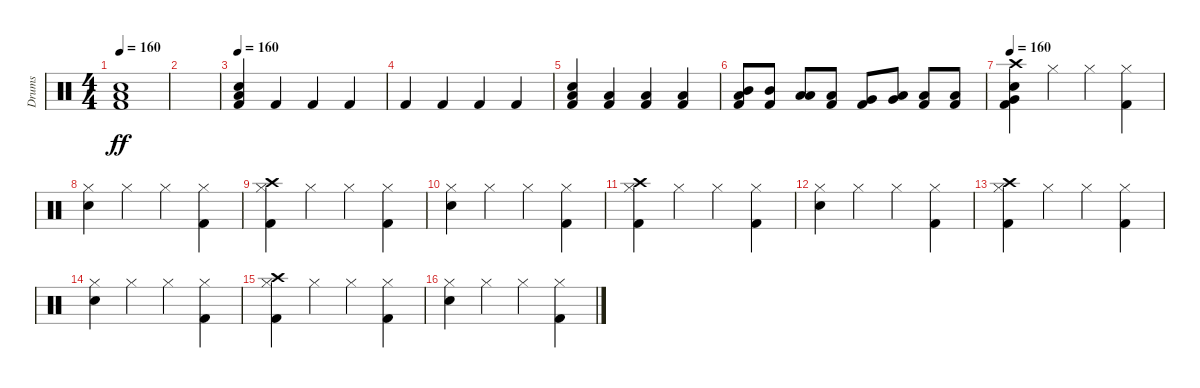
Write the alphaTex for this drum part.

\track ("Drums" "Drums") {instrument percussion}
\staff {score}
\articulation defaults
\ts (4 4)
\tempo 160
\clef neutral
\ks c
("Kick (hit) 2" "Low Floor Tom (hit)" "Snare (hit) 2").1{dy ff} |
|
\tempo 160
("Kick (hit) 2" "Low Floor Tom (hit)" "Snare (hit) 2").4 "Kick (hit) 2".4 "Kick (hit) 2".4 "Kick (hit) 2".4 |
"Kick (hit) 2".4 "Kick (hit) 2".4 "Kick (hit) 2".4 "Kick (hit) 2".4 |
("Kick (hit) 2" "Low Floor Tom (hit)" "Snare (hit) 2").4 ("Low Floor Tom (hit)" "Kick (hit) 2").4 ("Kick (hit) 2" "Low Floor Tom (hit)").4 ("Kick (hit) 2" "Low Floor Tom (hit)").4 |
("Mid Tom (hit)" "Kick (hit) 2" "Low Floor Tom (hit)").8 ("Mid Tom (hit)" "Kick (hit) 2").8 ("Low Tom (hit)" "Low Floor Tom (hit)").8 ("Low Tom (hit)" "Kick (hit) 2").8 ("Very Low Tom (hit)" "Kick (hit) 2").8 ("Very Low Tom (hit)" "Low Floor Tom (hit)").8 ("Low Floor Tom (hit)" "Kick (hit) 2").8 ("Low Floor Tom (hit)" "Kick (hit) 2").8 |
\tempo 160
("Snare (hit) 2" "Very Low Tom (hit)" "Crash high (hit)" "Kick (hit) 2").4 "Hi-Hat (closed)".4 "Hi-Hat (closed)".4 ("Hi-Hat (closed)" "Kick (hit) 2").4 |
("Hi-Hat (closed)" "Snare (hit) 2").4 "Hi-Hat (closed)".4 "Hi-Hat (closed)".4 ("Hi-Hat (closed)" "Kick (hit) 2").4 |
("Hi-Hat (closed)" "Crash high (hit)" "Kick (hit) 2").4 "Hi-Hat (closed)".4 "Hi-Hat (closed)".4 ("Hi-Hat (closed)" "Kick (hit) 2").4 |
("Hi-Hat (closed)" "Snare (hit) 2").4 "Hi-Hat (closed)".4 "Hi-Hat (closed)".4 ("Hi-Hat (closed)" "Kick (hit) 2").4 |
("Hi-Hat (closed)" "Crash high (hit)" "Kick (hit) 2").4 "Hi-Hat (closed)".4 "Hi-Hat (closed)".4 ("Hi-Hat (closed)" "Kick (hit) 2").4 |
("Hi-Hat (closed)" "Snare (hit) 2").4 "Hi-Hat (closed)".4 "Hi-Hat (closed)".4 ("Hi-Hat (closed)" "Kick (hit) 2").4 |
("Hi-Hat (closed)" "Crash high (hit)" "Kick (hit) 2").4 "Hi-Hat (closed)".4 "Hi-Hat (closed)".4 ("Hi-Hat (closed)" "Kick (hit) 2").4 |
("Hi-Hat (closed)" "Snare (hit) 2").4 "Hi-Hat (closed)".4 "Hi-Hat (closed)".4 ("Hi-Hat (closed)" "Kick (hit) 2").4 |
("Hi-Hat (closed)" "Crash high (hit)" "Kick (hit) 2").4 "Hi-Hat (closed)".4 "Hi-Hat (closed)".4 ("Hi-Hat (closed)" "Kick (hit) 2").4 |
("Hi-Hat (closed)" "Snare (hit) 2").4 "Hi-Hat (closed)".4 "Hi-Hat (closed)".4 ("Hi-Hat (closed)" "Kick (hit) 2").4
